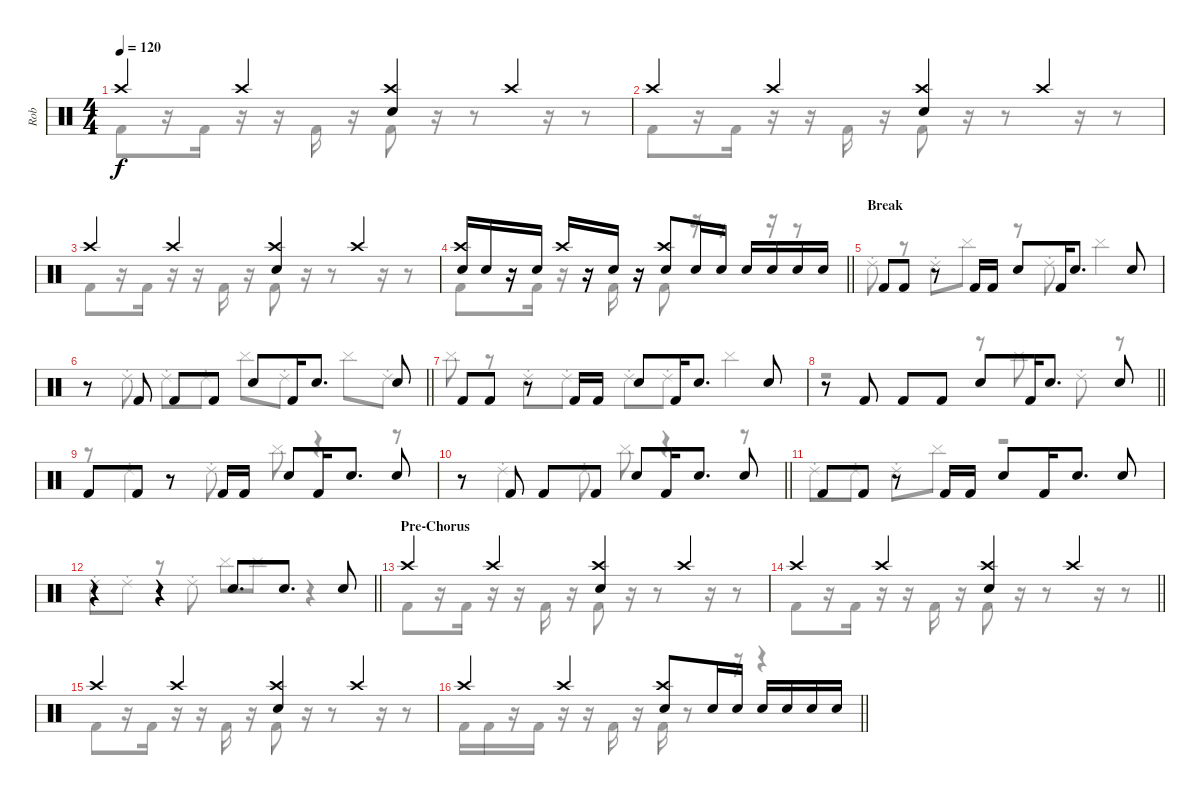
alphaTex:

\track ("Rob" "Rob") {instrument percussion}
\staff {score}
\articulation defaults
\voice
\ts (4 4)
\tempo 120
\clef neutral
\ks c "Crash high (hit)".4{dy f} "Crash high (hit)".4
("Crash high (hit)" "Snare (hit) 2").4 "Crash high (hit)".4 |
"Crash high (hit)".4 "Crash high (hit)".4 ("Crash high (hit)" "Snare (hit) 2").4 "Crash high (hit)".4 |
"Crash high (hit)".4 "Crash high (hit)".4 ("Crash high (hit)" "Snare (hit) 2").4 "Crash high (hit)".4 |
\barLineRight lightlight
("Crash high (hit)" "Snare (hit) 2").16 "Snare (hit) 2".16 r.16 "Snare (hit) 2".16 "Crash high (hit)".16 r.16 "Snare (hit) 2".16 r.16 ("Crash high (hit)" "Snare (hit) 2").8 "Snare (hit) 2".16 "Snare (hit) 2".16 "Snare (hit) 2".16 "Snare (hit) 2".16 "Snare (hit) 2".16 "Snare (hit) 2".16 |
\section ("" "Break")
"Kick (hit) 2".8 "Kick (hit) 2".8 r.8 "Kick (hit) 2".16 "Kick (hit) 2".16 "Snare (hit) 2".8 "Kick (hit) 2".16 "Snare (hit) 2".8{d} "Snare (hit) 2".8 |
\barLineRight lightlight
r.8 "Kick (hit) 2".8 "Kick (hit) 2".8 "Kick (hit) 2".8 "Snare (hit) 2".8 "Kick (hit) 2".16 "Snare (hit) 2".8{d} "Snare (hit) 2".8 |
"Kick (hit) 2".8 "Kick (hit) 2".8 r.8 "Kick (hit) 2".16 "Kick (hit) 2".16 "Snare (hit) 2".8 "Kick (hit) 2".16 "Snare (hit) 2".8{d} "Snare (hit) 2".8 |
\barLineRight lightlight
r.8 "Kick (hit) 2".8 "Kick (hit) 2".8 "Kick (hit) 2".8 "Snare (hit) 2".8 "Kick (hit) 2".16 "Snare (hit) 2".8{d} "Snare (hit) 2".8 |
"Kick (hit) 2".8 "Kick (hit) 2".8 r.8 "Kick (hit) 2".16 "Kick (hit) 2".16 "Snare (hit) 2".8 "Kick (hit) 2".16 "Snare (hit) 2".8{d} "Snare (hit) 2".8 |
\barLineRight lightlight
r.8 "Kick (hit) 2".8 "Kick (hit) 2".8 "Kick (hit) 2".8 "Snare (hit) 2".8 "Kick (hit) 2".16 "Snare (hit) 2".8{d} "Snare (hit) 2".8 |
"Kick (hit) 2".8 "Kick (hit) 2".8 r.8 "Kick (hit) 2".16 "Kick (hit) 2".16 "Snare (hit) 2".8 "Kick (hit) 2".16 "Snare (hit) 2".8{d} "Snare (hit) 2".8 |
\barLineRight lightlight
r.4 r.4 "Snare (hit) 2".8{d} "Snare (hit) 2".8{d} "Snare (hit) 2".8 |
\section ("" "Pre-Chorus")
"Crash high (hit)".4 "Crash high (hit)".4 ("Crash high (hit)" "Snare (hit) 2").4 "Crash high (hit)".4 |
\barLineRight lightlight "Crash high (hit)".4 "Crash high (hit)".4
("Crash high (hit)" "Snare (hit) 2").4 "Crash high (hit)".4 |
"Crash high (hit)".4 "Crash high (hit)".4 ("Crash high (hit)" "Snare (hit) 2").4 "Crash high (hit)".4 |
\barLineRight lightlight "Crash high (hit)".4 "Crash high (hit)".4
("Crash high (hit)" "Snare (hit) 2").8 "Snare (hit) 2".16 "Snare (hit) 2".16 "Snare (hit) 2".16 "Snare (hit) 2".16 "Snare (hit) 2".16 "Snare (hit) 2".16
\voice
\clef neutral
\ottava regular
\simile none
\ks c "Kick (hit) 2".8{dy f}
r.16 "Kick (hit) 2".16 r.16 r.16 "Kick (hit) 2".16 r.16 "Kick (hit) 2".8 r.16 r.8 r.16 r.8 |
"Kick (hit) 2".8 r.16 "Kick (hit) 2".16 r.16 r.16 "Kick (hit) 2".16 r.16 "Kick (hit) 2".8 r.16 r.8 r.16 r.8 |
"Kick (hit) 2".8 r.16 "Kick (hit) 2".16 r.16 r.16 "Kick (hit) 2".16 r.16 "Kick (hit) 2".8 r.16 r.8 r.16 r.8 |
\barLineRight lightlight "Kick (hit) 2".8
r.16 "Kick (hit) 2".16 r.16 r.16 "Kick (hit) 2".16 r.16 "Kick (hit) 2".8 r.16 r.8 r.16 r.8 |
"Ride (choke) 2".8 r.8 "Ride (choke) 2".8 "Cymbal (hit)".8 r.8 "Ride (choke) 2".8 "Cymbal (hit)".4 |
\barLineRight lightlight
r.8 "Ride (choke) 2".8 "Ride (choke) 2".8 "Ride (choke) 2".8 "Cymbal (hit)".8 "Ride (choke) 2".8 "Cymbal (hit)".8 "Ride (choke) 2".8 |
"Cymbal (hit)".8 r.8 "Ride (choke) 2".8 "Ride (choke) 2".8 "Ride (choke) 2".8 "Ride (choke) 2".8 "Cymbal (hit)".4 |
\barLineRight lightlight
r.2 r.8 "Cymbal (hit)".8 "Ride (choke) 2".8 r.8 |
r.8 "Ride (choke) 2".4 "Ride (choke) 2".8 "Cymbal (hit)".8 r.4 r.8 |
\barLineRight lightlight
r.8 "Ride (choke) 2".4 "Ride (choke) 2".8 "Cymbal (hit)".8 r.4 r.8 |
"Ride (choke) 2".8 "Ride (choke) 2".8 "Ride (choke) 2".8 "Cymbal (hit)".8 r.2 |
\barLineRight lightlight "Ride (choke) 2".8 "Ride (choke) 2".8
r.8 "Ride (choke) 2".8 "Cymbal (hit)".8 "Cymbal (hit)".8 r.4 |
"Kick (hit) 2".8 r.16 "Kick (hit) 2".16 r.16 r.16 "Kick (hit) 2".16 r.16 "Kick (hit) 2".8 r.16 r.8 r.16 r.8 |
\barLineRight lightlight "Kick (hit) 2".8
r.16 "Kick (hit) 2".16 r.16 r.16 "Kick (hit) 2".16 r.16 "Kick (hit) 2".8 r.16 r.8 r.16 r.8 |
"Kick (hit) 2".8 r.16 "Kick (hit) 2".16 r.16 r.16 "Kick (hit) 2".16 r.16 "Kick (hit) 2".8 r.16 r.8 r.16 r.8 |
\barLineRight lightlight "Kick (hit) 2".16 "Kick (hit) 2".16
r.16 "Kick (hit) 2".16 r.16 r.16 "Kick (hit) 2".16 r.16 "Kick (hit) 2".16 r.8 r.16 r.4
